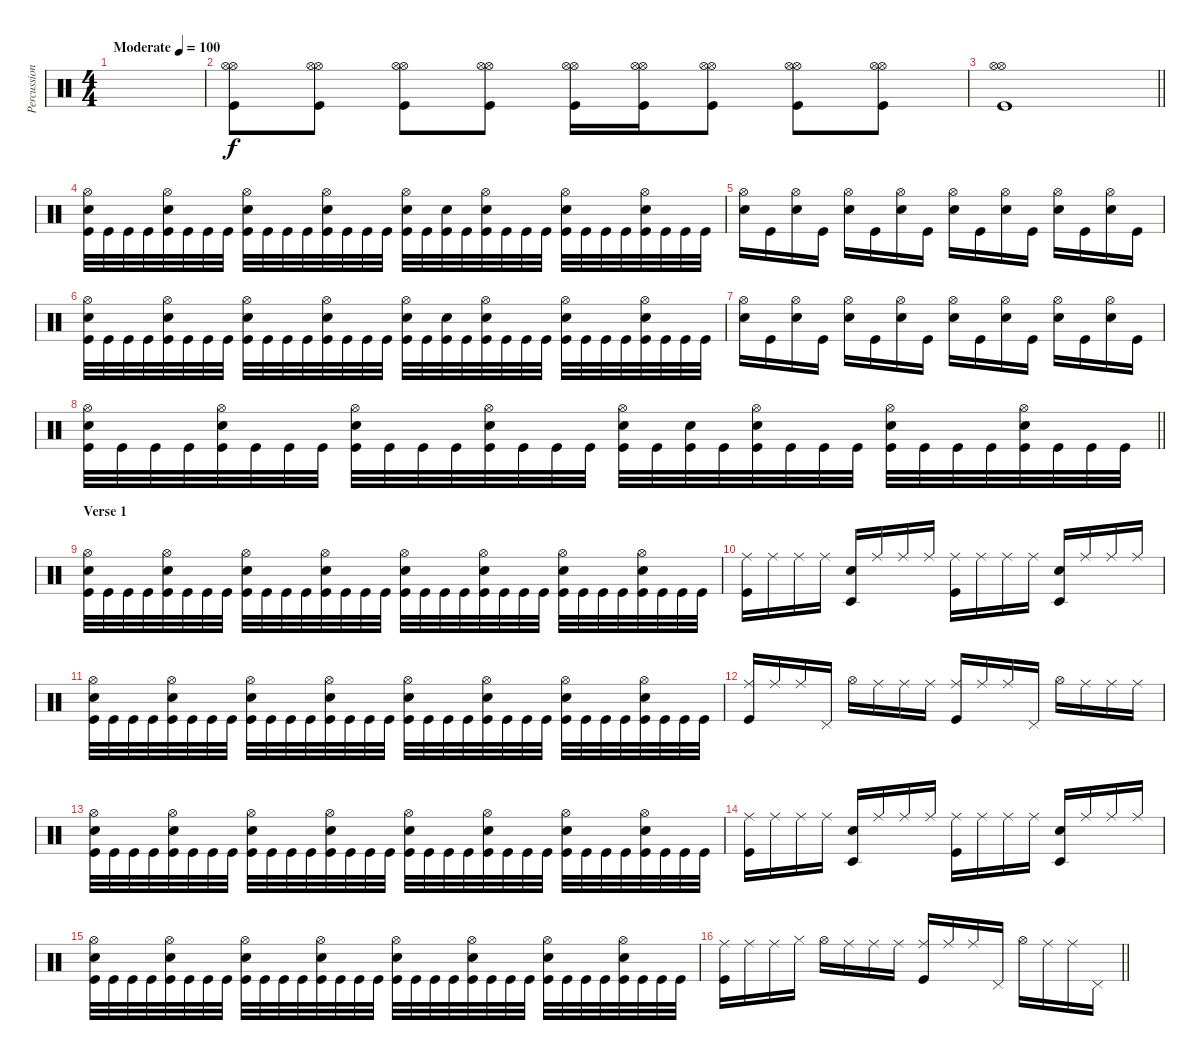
\track ("Percussions" "Percussion") {instrument percussion}
\staff {score}
\articulation defaults
\ts (4 4)
\tempo (100 "Moderate")
\clef neutral
\ks c
|
("Hi-Hat (open)" "Hi-Hat (open)" "Kick (hit)").8 ("Hi-Hat (open)" "Hi-Hat (open)" "Kick (hit)").8 ("Hi-Hat (open)" "Hi-Hat (open)" "Kick (hit)").8 ("Hi-Hat (open)" "Hi-Hat (open)" "Kick (hit)").8 ("Hi-Hat (open)" "Hi-Hat (open)" "Kick (hit)").16 ("Hi-Hat (open)" "Hi-Hat (open)" "Kick (hit)").16 ("Hi-Hat (open)" "Hi-Hat (open)" "Kick (hit)").8 ("Hi-Hat (open)" "Hi-Hat (open)" "Kick (hit)").8 ("Hi-Hat (open)" "Hi-Hat (open)" "Kick (hit)").8 |
\barLineRight lightlight
("Hi-Hat (open)" "Hi-Hat (open)" "Kick (hit)").1 |
\section ("" "")
("Hi-Hat (open)" "Electric Snare (hit)" "Kick (hit)").32 "Kick (hit)".32 "Kick (hit)".32 "Kick (hit)".32 ("Hi-Hat (open)" "Electric Snare (hit)" "Kick (hit)").32 "Kick (hit)".32 "Kick (hit)".32 "Kick (hit)".32 ("Hi-Hat (open)" "Electric Snare (hit)" "Kick (hit)").32 "Kick (hit)".32 "Kick (hit)".32 "Kick (hit)".32 ("Hi-Hat (open)" "Electric Snare (hit)" "Kick (hit)").32 "Kick (hit)".32 "Kick (hit)".32 "Kick (hit)".32 ("Hi-Hat (open)" "Electric Snare (hit)" "Kick (hit)").32 "Kick (hit)".32 ("Electric Snare (hit)" "Kick (hit)").32 "Kick (hit)".32 ("Hi-Hat (open)" "Electric Snare (hit)" "Kick (hit)").32 "Kick (hit)".32 "Kick (hit)".32 "Kick (hit)".32 ("Hi-Hat (open)" "Electric Snare (hit)" "Kick (hit)").32 "Kick (hit)".32 "Kick (hit)".32 "Kick (hit)".32 ("Hi-Hat (open)" "Electric Snare (hit)" "Kick (hit)").32 "Kick (hit)".32 "Kick (hit)".32 "Kick (hit)".32 |
("Hi-Hat (open)" "Electric Snare (hit)").16 "Kick (hit)".16 ("Hi-Hat (open)" "Electric Snare (hit)").16 "Kick (hit)".16 ("Hi-Hat (open)" "Electric Snare (hit)").16 "Kick (hit)".16 ("Hi-Hat (open)" "Electric Snare (hit)").16 "Kick (hit)".16 ("Hi-Hat (open)" "Electric Snare (hit)").16 "Kick (hit)".16 ("Hi-Hat (open)" "Electric Snare (hit)").16 "Kick (hit)".16 ("Hi-Hat (open)" "Electric Snare (hit)").16 "Kick (hit)".16 ("Hi-Hat (open)" "Electric Snare (hit)").16 "Kick (hit)".16 |
("Hi-Hat (open)" "Electric Snare (hit)" "Kick (hit)").32 "Kick (hit)".32 "Kick (hit)".32 "Kick (hit)".32 ("Hi-Hat (open)" "Electric Snare (hit)" "Kick (hit)").32 "Kick (hit)".32 "Kick (hit)".32 "Kick (hit)".32 ("Hi-Hat (open)" "Electric Snare (hit)" "Kick (hit)").32 "Kick (hit)".32 "Kick (hit)".32 "Kick (hit)".32 ("Hi-Hat (open)" "Electric Snare (hit)" "Kick (hit)").32 "Kick (hit)".32 "Kick (hit)".32 "Kick (hit)".32 ("Hi-Hat (open)" "Electric Snare (hit)" "Kick (hit)").32 "Kick (hit)".32 ("Electric Snare (hit)" "Kick (hit)").32 "Kick (hit)".32 ("Hi-Hat (open)" "Electric Snare (hit)" "Kick (hit)").32 "Kick (hit)".32 "Kick (hit)".32 "Kick (hit)".32 ("Hi-Hat (open)" "Electric Snare (hit)" "Kick (hit)").32 "Kick (hit)".32 "Kick (hit)".32 "Kick (hit)".32 ("Hi-Hat (open)" "Electric Snare (hit)" "Kick (hit)").32 "Kick (hit)".32 "Kick (hit)".32 "Kick (hit)".32 |
("Hi-Hat (open)" "Electric Snare (hit)").16 "Kick (hit)".16 ("Hi-Hat (open)" "Electric Snare (hit)").16 "Kick (hit)".16 ("Hi-Hat (open)" "Electric Snare (hit)").16 "Kick (hit)".16 ("Hi-Hat (open)" "Electric Snare (hit)").16 "Kick (hit)".16 ("Hi-Hat (open)" "Electric Snare (hit)").16 "Kick (hit)".16 ("Hi-Hat (open)" "Electric Snare (hit)").16 "Kick (hit)".16 ("Hi-Hat (open)" "Electric Snare (hit)").16 "Kick (hit)".16 ("Hi-Hat (open)" "Electric Snare (hit)").16 "Kick (hit)".16 |
\barLineRight lightlight
("Hi-Hat (open)" "Electric Snare (hit)" "Kick (hit)").32 "Kick (hit)".32 "Kick (hit)".32 "Kick (hit)".32 ("Hi-Hat (open)" "Electric Snare (hit)" "Kick (hit)").32 "Kick (hit)".32 "Kick (hit)".32 "Kick (hit)".32 ("Hi-Hat (open)" "Electric Snare (hit)" "Kick (hit)").32 "Kick (hit)".32 "Kick (hit)".32 "Kick (hit)".32 ("Hi-Hat (open)" "Electric Snare (hit)" "Kick (hit)").32 "Kick (hit)".32 "Kick (hit)".32 "Kick (hit)".32 ("Hi-Hat (open)" "Electric Snare (hit)" "Kick (hit)").32 "Kick (hit)".32 ("Electric Snare (hit)" "Kick (hit)").32 "Kick (hit)".32 ("Hi-Hat (open)" "Electric Snare (hit)" "Kick (hit)").32 "Kick (hit)".32 "Kick (hit)".32 "Kick (hit)".32 ("Hi-Hat (open)" "Electric Snare (hit)" "Kick (hit)").32 "Kick (hit)".32 "Kick (hit)".32 "Kick (hit)".32 ("Hi-Hat (open)" "Electric Snare (hit)" "Kick (hit)").32 "Kick (hit)".32 "Kick (hit)".32 "Kick (hit)".32 |
\section ("" "Verse 1")
("Hi-Hat (open)" "Electric Snare (hit)" "Kick (hit)").32 "Kick (hit)".32 "Kick (hit)".32 "Kick (hit)".32 ("Hi-Hat (open)" "Electric Snare (hit)" "Kick (hit)").32 "Kick (hit)".32 "Kick (hit)".32 "Kick (hit)".32 ("Hi-Hat (open)" "Electric Snare (hit)" "Kick (hit)").32 "Kick (hit)".32 "Kick (hit)".32 "Kick (hit)".32 ("Hi-Hat (open)" "Electric Snare (hit)" "Kick (hit)").32 "Kick (hit)".32 "Kick (hit)".32 "Kick (hit)".32 ("Hi-Hat (open)" "Electric Snare (hit)" "Kick (hit)").32 "Kick (hit)".32 "Kick (hit)".32 "Kick (hit)".32 ("Hi-Hat (open)" "Electric Snare (hit)" "Kick (hit)").32 "Kick (hit)".32 "Kick (hit)".32 "Kick (hit)".32 ("Hi-Hat (open)" "Electric Snare (hit)" "Kick (hit)").32 "Kick (hit)".32 "Kick (hit)".32 "Kick (hit)".32 ("Hi-Hat (open)" "Electric Snare (hit)" "Kick (hit)").32 "Kick (hit)".32 "Kick (hit)".32 "Kick (hit)".32 |
("Ride (middle)" "Kick (hit)").16 "Ride (middle)".16 "Ride (middle)".16 "Ride (middle)".16 ("Timbale low (hit)" "Electric Snare (hit)").16 "Ride (middle)".16 "Ride (middle)".16 "Ride (middle)".16 ("Ride (middle)" "Kick (hit)").16 "Ride (middle)".16 "Ride (middle)".16 "Ride (middle)".16 ("Timbale low (hit)" "Electric Snare (hit)").16 "Ride (middle)".16 "Ride (middle)".16 "Ride (middle)".16 |
("Hi-Hat (open)" "Electric Snare (hit)" "Kick (hit)").32 "Kick (hit)".32 "Kick (hit)".32 "Kick (hit)".32 ("Hi-Hat (open)" "Electric Snare (hit)" "Kick (hit)").32 "Kick (hit)".32 "Kick (hit)".32 "Kick (hit)".32 ("Hi-Hat (open)" "Electric Snare (hit)" "Kick (hit)").32 "Kick (hit)".32 "Kick (hit)".32 "Kick (hit)".32 ("Hi-Hat (open)" "Electric Snare (hit)" "Kick (hit)").32 "Kick (hit)".32 "Kick (hit)".32 "Kick (hit)".32 ("Hi-Hat (open)" "Electric Snare (hit)" "Kick (hit)").32 "Kick (hit)".32 "Kick (hit)".32 "Kick (hit)".32 ("Hi-Hat (open)" "Electric Snare (hit)" "Kick (hit)").32 "Kick (hit)".32 "Kick (hit)".32 "Kick (hit)".32 ("Hi-Hat (open)" "Electric Snare (hit)" "Kick (hit)").32 "Kick (hit)".32 "Kick (hit)".32 "Kick (hit)".32 ("Hi-Hat (open)" "Electric Snare (hit)" "Kick (hit)").32 "Kick (hit)".32 "Kick (hit)".32 "Kick (hit)".32 |
("Ride (middle)" "Kick (hit)").16 "Ride (middle)".16 "Ride (middle)".16 "Pedal Hi-Hat (hit)".16 "Hi-Hat (open)".16 "Ride (middle)".16 "Ride (middle)".16 "Ride (middle)".16 ("Ride (middle)" "Kick (hit)").16 "Ride (middle)".16 "Ride (middle)".16 "Pedal Hi-Hat (hit)".16 "Hi-Hat (open)".16 "Ride (middle)".16 "Ride (middle)".16 "Ride (middle)".16 |
("Hi-Hat (open)" "Electric Snare (hit)" "Kick (hit)").32 "Kick (hit)".32 "Kick (hit)".32 "Kick (hit)".32 ("Hi-Hat (open)" "Electric Snare (hit)" "Kick (hit)").32 "Kick (hit)".32 "Kick (hit)".32 "Kick (hit)".32 ("Hi-Hat (open)" "Electric Snare (hit)" "Kick (hit)").32 "Kick (hit)".32 "Kick (hit)".32 "Kick (hit)".32 ("Hi-Hat (open)" "Electric Snare (hit)" "Kick (hit)").32 "Kick (hit)".32 "Kick (hit)".32 "Kick (hit)".32 ("Hi-Hat (open)" "Electric Snare (hit)" "Kick (hit)").32 "Kick (hit)".32 "Kick (hit)".32 "Kick (hit)".32 ("Hi-Hat (open)" "Electric Snare (hit)" "Kick (hit)").32 "Kick (hit)".32 "Kick (hit)".32 "Kick (hit)".32 ("Hi-Hat (open)" "Electric Snare (hit)" "Kick (hit)").32 "Kick (hit)".32 "Kick (hit)".32 "Kick (hit)".32 ("Hi-Hat (open)" "Electric Snare (hit)" "Kick (hit)").32 "Kick (hit)".32 "Kick (hit)".32 "Kick (hit)".32 |
("Ride (middle)" "Kick (hit)").16 "Ride (middle)".16 "Ride (middle)".16 "Ride (middle)".16 ("Timbale low (hit)" "Electric Snare (hit)").16 "Ride (middle)".16 "Ride (middle)".16 "Ride (middle)".16 ("Ride (middle)" "Kick (hit)").16 "Ride (middle)".16 "Ride (middle)".16 "Ride (middle)".16 ("Timbale low (hit)" "Electric Snare (hit)").16 "Ride (middle)".16 "Ride (middle)".16 "Ride (middle)".16 |
("Hi-Hat (open)" "Electric Snare (hit)" "Kick (hit)").32 "Kick (hit)".32 "Kick (hit)".32 "Kick (hit)".32 ("Hi-Hat (open)" "Electric Snare (hit)" "Kick (hit)").32 "Kick (hit)".32 "Kick (hit)".32 "Kick (hit)".32 ("Hi-Hat (open)" "Electric Snare (hit)" "Kick (hit)").32 "Kick (hit)".32 "Kick (hit)".32 "Kick (hit)".32 ("Hi-Hat (open)" "Electric Snare (hit)" "Kick (hit)").32 "Kick (hit)".32 "Kick (hit)".32 "Kick (hit)".32 ("Hi-Hat (open)" "Electric Snare (hit)" "Kick (hit)").32 "Kick (hit)".32 "Kick (hit)".32 "Kick (hit)".32 ("Hi-Hat (open)" "Electric Snare (hit)" "Kick (hit)").32 "Kick (hit)".32 "Kick (hit)".32 "Kick (hit)".32 ("Hi-Hat (open)" "Electric Snare (hit)" "Kick (hit)").32 "Kick (hit)".32 "Kick (hit)".32 "Kick (hit)".32 ("Hi-Hat (open)" "Electric Snare (hit)" "Kick (hit)").32 "Kick (hit)".32 "Kick (hit)".32 "Kick (hit)".32 |
\barLineRight lightlight
("Ride (middle)" "Kick (hit)").16 "Ride (middle)".16 "Ride (middle)".16 "Hi-Hat (closed)".16 "Hi-Hat (open)".16 "Ride (middle)".16 "Ride (middle)".16 "Ride (middle)".16 ("Ride (middle)" "Kick (hit)").16 "Ride (middle)".16 "Ride (middle)".16 "Pedal Hi-Hat (hit)".16 "Hi-Hat (open)".16 "Ride (middle)".16 "Ride (middle)".16 "Pedal Hi-Hat (hit)".16
